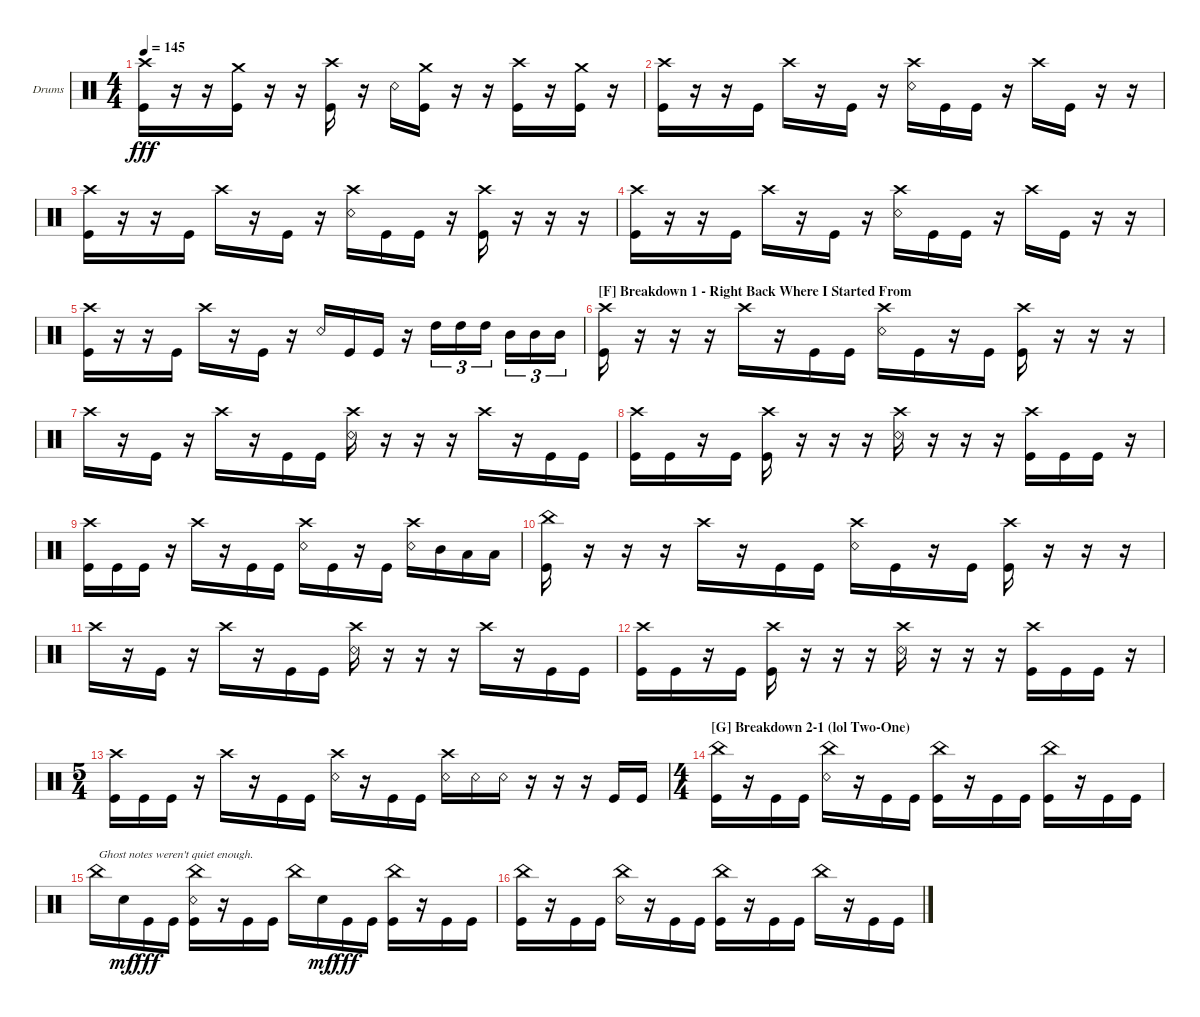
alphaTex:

\defaultSystemsLayout 4
\bracketExtendMode groupsimilarinstruments
\firstSystemTrackNameOrientation horizontal
\otherSystemsTrackNameOrientation horizontal
\track ("Chris Khoury" "Drums") {instrument percussion}
\staff {score}
\articulation defaults
\ts (4 4)
\tempo 145
\clef neutral
\scale
0.333333
\ks c
("Kick (hit)" "Crash high (hit)").16{dy fff} r.16 r.16 ("Kick (hit)" "Crash medium (hit)").16 r.16 r.16 ("Kick (hit)" "Crash high (hit)").16 r.16 "Snare (rim shot)".16 ("Kick (hit)" "Crash medium (hit)").16 r.16 r.16 ("Kick (hit)" "Crash high (hit)").16 r.16 ("Kick (hit)" "Crash medium (hit)").16 r.16 |
\scale
0.333333 ("Crash high (hit)" "Kick (hit)").16 r.16 r.16 "Kick (hit)".16 "Crash high (hit)".16 r.16 "Kick (hit)".16 r.16 ("Crash high (hit)" "Snare (rim shot)").16 "Kick (hit)".16 "Kick (hit)".16 r.16 "Crash high (hit)".16 "Kick (hit)".16 r.16 r.16 |
\scale
0.333333 ("Crash high (hit)" "Kick (hit)").16 r.16 r.16 "Kick (hit)".16 "Crash high (hit)".16 r.16 "Kick (hit)".16 r.16 ("Crash high (hit)" "Snare (rim shot)").16 "Kick (hit)".16 "Kick (hit)".16 r.16 ("Crash high (hit)" "Kick (hit)").16 r.16 r.16 r.16 |
\scale
0.333333 ("Crash high (hit)" "Kick (hit)").16 r.16 r.16 "Kick (hit)".16 "Crash high (hit)".16 r.16 "Kick (hit)".16 r.16 ("Crash high (hit)" "Snare (rim shot)").16 "Kick (hit)".16 "Kick (hit)".16 r.16 "Crash high (hit)".16 "Kick (hit)".16 r.16 r.16 |
\scale
0.333333 ("Kick (hit)" "Crash high (hit)").16 r.16 r.16 "Kick (hit)".16 "Crash high (hit)".16 r.16 "Kick (hit)".16 r.16 "Snare (rim shot)".16 "Kick (hit)".16 "Kick (hit)".16 r.16 "High Tom (hit)".16{tu (3 2)} "High Tom (hit)".16{tu (3 2)} "High Tom (hit)".16{tu (3 2)} "Mid Tom (hit)".16{tu (3 2)} "Mid Tom (hit)".16{tu (3 2)} "Mid Tom (hit)".16{tu (3 2)} |
\section ("F" "Breakdown 1 - Right Back Where I Started From")
\scale
0.333333 ("Kick (hit)" "Crash high (hit)").16 r.16 r.16 r.16 "Crash high (hit)".16 r.16 "Kick (hit)".16 "Kick (hit)".16 ("Snare (rim shot)" "Crash high (hit)").16 "Kick (hit)".16 r.16 "Kick (hit)".16 ("Kick (hit)" "Crash high (hit)").16 r.16 r.16 r.16 |
\scale
0.333333 "Crash high (hit)".16 r.16 "Kick (hit)".16 r.16 "Crash high (hit)".16 r.16 "Kick (hit)".16 "Kick (hit)".16 ("Snare (rim shot)" "Crash high (hit)").16 r.16 r.16 r.16 "Crash high (hit)".16 r.16 "Kick (hit)".16 "Kick (hit)".16 |
\scale
0.333333 ("Kick (hit)" "Crash high (hit)").16 "Kick (hit)".16 r.16 "Kick (hit)".16 ("Kick (hit)" "Crash high (hit)").16 r.16 r.16 r.16 ("Snare (rim shot)" "Crash high (hit)").16 r.16 r.16 r.16 ("Kick (hit)" "Crash high (hit)").16 "Kick (hit)".16 "Kick (hit)".16 r.16 |
\scale
0.333333 ("Kick (hit)" "Crash high (hit)").16 "Kick (hit)".16 "Kick (hit)".16 r.16 "Crash high (hit)".16 r.16 "Kick (hit)".16 "Kick (hit)".16 ("Snare (rim shot)" "Crash high (hit)").16 "Kick (hit)".16 r.16 "Kick (hit)".16 ("Snare (rim shot)" "Crash high (hit)").16 "Mid Tom (hit)".16 "Low Tom (hit)".16 "Low Tom (hit)".16 |
\scale
0.333333 ("China (hit)" "Kick (hit)").16 r.16 r.16 r.16 "Crash high (hit)".16 r.16 "Kick (hit)".16 "Kick (hit)".16 ("Crash high (hit)" "Snare (rim shot)").16 "Kick (hit)".16 r.16 "Kick (hit)".16 ("Crash high (hit)" "Kick (hit)").16 r.16 r.16 r.16 |
\scale
0.333333 "Crash high (hit)".16 r.16 "Kick (hit)".16 r.16 "Crash high (hit)".16 r.16 "Kick (hit)".16 "Kick (hit)".16 ("Crash high (hit)" "Snare (rim shot)").16 r.16 r.16 r.16 "Crash high (hit)".16 r.16 "Kick (hit)".16 "Kick (hit)".16 |
\scale
0.333333 ("Crash high (hit)" "Kick (hit)").16 "Kick (hit)".16 r.16 "Kick (hit)".16 ("Crash high (hit)" "Kick (hit)").16 r.16 r.16 r.16 ("Crash high (hit)" "Snare (rim shot)").16 r.16 r.16 r.16 ("Crash high (hit)" "Kick (hit)").16 "Kick (hit)".16 "Kick (hit)".16 r.16 |
\ts (5 4)
\scale
0.391473 ("Crash high (hit)" "Kick (hit)").16 "Kick (hit)".16 "Kick (hit)".16 r.16 "Crash high (hit)".16 r.16 "Kick (hit)".16 "Kick (hit)".16 ("Crash high (hit)" "Snare (rim shot)").16 r.16 "Kick (hit)".16 "Kick (hit)".16 ("Crash high (hit)" "Snare (rim shot)").16 "Snare (rim shot)".16 "Snare (rim shot)".16 r.16 r.16 r.16 "Kick (hit)".16 "Kick (hit)".16 |
\ts (4 4)
\section ("G" "Breakdown 2-1 (lol Two-One)")
\scale
0.391473 ("Kick (hit)" "China (hit)").16 r.16 "Kick (hit)".16 "Kick (hit)".16 ("Snare (rim shot)" "China (hit)").16 r.16 "Kick (hit)".16 "Kick (hit)".16 ("China (hit)" "Kick (hit)").16 r.16 "Kick (hit)".16 "Kick (hit)".16 ("China (hit)" "Kick (hit)").16 r.16 "Kick (hit)".16 "Kick (hit)".16 |
\scale
0.217054 "China (hit)".16{txt "Ghost notes weren't quiet enough."} "Snare (hit) 2".16{dy mf} "Kick (hit)".16{dy fff} "Kick (hit)".16 ("China (hit)" "Snare (rim shot)" "Kick (hit)").16 r.16 "Kick (hit)".16 "Kick (hit)".16 "China (hit)".16 "Snare (hit) 2".16{dy mf} "Kick (hit)".16{dy fff} "Kick (hit)".16 ("China (hit)" "Kick (hit)").16 r.16 "Kick (hit)".16 "Kick (hit)".16 |
\scale
0.333333 ("China (hit)" "Kick (hit)").16 r.16 "Kick (hit)".16 "Kick (hit)".16 ("China (hit)" "Snare (rim shot)").16 r.16 "Kick (hit)".16 "Kick (hit)".16 ("China (hit)" "Kick (hit)").16 r.16 "Kick (hit)".16 "Kick (hit)".16 "China (hit)".16 r.16 "Kick (hit)".16 "Kick (hit)".16
